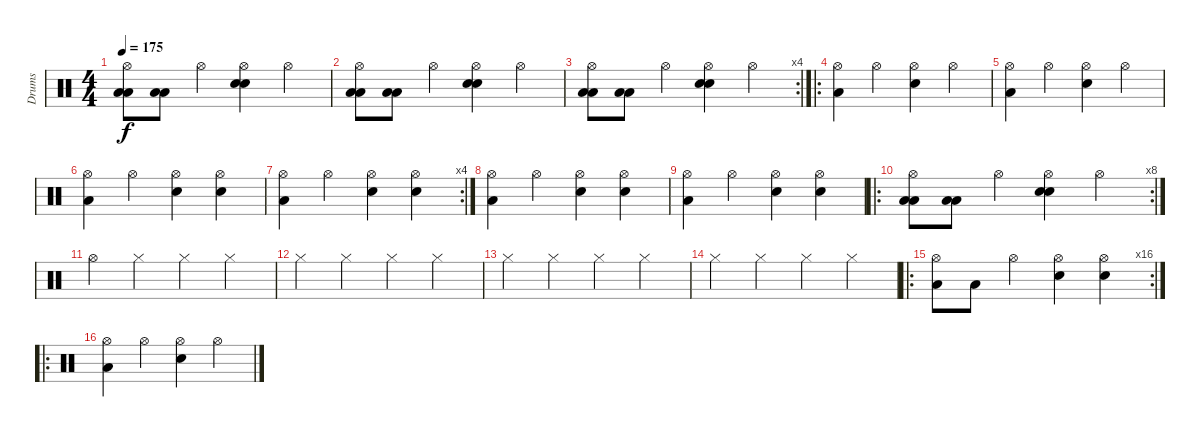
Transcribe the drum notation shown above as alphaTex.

\track ("Drums" "Drums") {instrument percussion}
\staff {score}
\articulation defaults
\ts (4 4)
\tempo 175
\clef neutral
\ks c
("Low Tom (hit)" "Low Tom (hit)" "Hi-Hat (open)").8{dy f} ("Low Tom (hit)" "Low Tom (hit)").8 "Hi-Hat (open)".4 ("Electric Snare (hit)" "Electric Snare (hit)" "Hi-Hat (open)").4 "Hi-Hat (open)".4 |
("Low Tom (hit)" "Low Tom (hit)" "Hi-Hat (open)").8 ("Low Tom (hit)" "Low Tom (hit)").8 "Hi-Hat (open)".4 ("Electric Snare (hit)" "Electric Snare (hit)" "Hi-Hat (open)").4 "Hi-Hat (open)".4 |
\rc 4
("Low Tom (hit)" "Low Tom (hit)" "Hi-Hat (open)").8 ("Low Tom (hit)" "Low Tom (hit)").8 "Hi-Hat (open)".4 ("Electric Snare (hit)" "Electric Snare (hit)" "Hi-Hat (open)").4 "Hi-Hat (open)".4 |
\ro
("Low Tom (hit)" "Hi-Hat (open)").4 "Hi-Hat (open)".4 ("Electric Snare (hit)" "Hi-Hat (open)").4 "Hi-Hat (open)".4 |
("Low Tom (hit)" "Hi-Hat (open)").4 "Hi-Hat (open)".4 ("Electric Snare (hit)" "Hi-Hat (open)").4 "Hi-Hat (open)".4 |
("Low Tom (hit)" "Hi-Hat (open)").4 "Hi-Hat (open)".4 ("Electric Snare (hit)" "Hi-Hat (open)").4 ("Electric Snare (hit)" "Hi-Hat (open)").4 |
\rc 4
("Low Tom (hit)" "Hi-Hat (open)").4 "Hi-Hat (open)".4 ("Electric Snare (hit)" "Hi-Hat (open)").4 ("Electric Snare (hit)" "Hi-Hat (open)").4 |
("Low Tom (hit)" "Hi-Hat (open)").4 "Hi-Hat (open)".4 ("Electric Snare (hit)" "Hi-Hat (open)").4 ("Electric Snare (hit)" "Hi-Hat (open)").4 |
("Low Tom (hit)" "Hi-Hat (open)").4 "Hi-Hat (open)".4 ("Electric Snare (hit)" "Hi-Hat (open)").4 ("Electric Snare (hit)" "Hi-Hat (open)").4 |
\ro
\rc 8
("Low Tom (hit)" "Low Tom (hit)" "Hi-Hat (open)").8 ("Low Tom (hit)" "Low Tom (hit)").8 "Hi-Hat (open)".4 ("Electric Snare (hit)" "Electric Snare (hit)" "Hi-Hat (open)").4 "Hi-Hat (open)".4 |
"Hi-Hat (open)".4 "Hi-Hat (closed)".4 "Hi-Hat (closed)".4 "Hi-Hat (closed)".4 |
"Hi-Hat (closed)".4 "Hi-Hat (closed)".4 "Hi-Hat (closed)".4 "Hi-Hat (closed)".4 |
"Hi-Hat (closed)".4 "Hi-Hat (closed)".4 "Hi-Hat (closed)".4 "Hi-Hat (closed)".4 |
"Hi-Hat (closed)".4 "Hi-Hat (closed)".4 "Hi-Hat (closed)".4 "Hi-Hat (closed)".4 |
\ro
\rc 16
("Low Tom (hit)" "Hi-Hat (open)").8 "Low Tom (hit)".8 "Hi-Hat (open)".4 ("Electric Snare (hit)" "Hi-Hat (open)").4 ("Electric Snare (hit)" "Hi-Hat (open)").4 |
\ro
("Low Tom (hit)" "Hi-Hat (open)").4 "Hi-Hat (open)".4 ("Electric Snare (hit)" "Hi-Hat (open)").4 "Hi-Hat (open)".4
